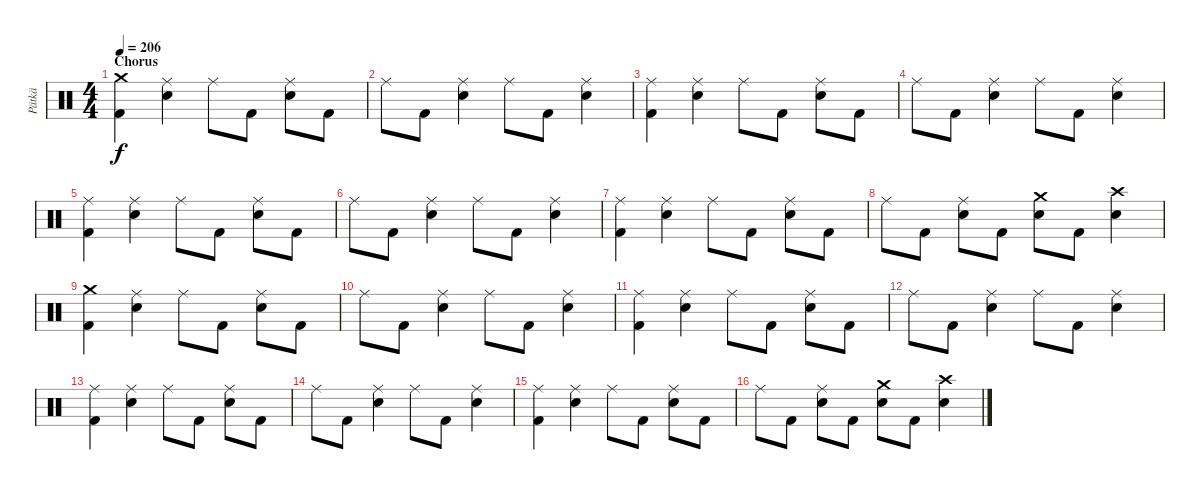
\track ("Pätkä" "Pätkä") {instrument percussion}
\staff {score}
\articulation defaults
\ts (4 4)
\section ("" "Chorus")
\tempo 206
\clef neutral
\ks c
("Crash medium (hit)" "Kick (hit) 2").4{dy f} ("Ride (middle)" "Electric Snare (hit)").4 "Ride (middle)".8 "Kick (hit) 2".8 ("Ride (middle)" "Electric Snare (hit)").8 "Kick (hit) 2".8 |
"Ride (middle)".8 "Kick (hit) 2".8 ("Ride (middle)" "Electric Snare (hit)").4 "Ride (middle)".8 "Kick (hit) 2".8 ("Ride (middle)" "Electric Snare (hit)").4 |
("Ride (middle)" "Kick (hit) 2").4 ("Ride (middle)" "Electric Snare (hit)").4 "Ride (middle)".8 "Kick (hit) 2".8 ("Ride (middle)" "Electric Snare (hit)").8 "Kick (hit) 2".8 |
"Ride (middle)".8 "Kick (hit) 2".8 ("Ride (middle)" "Electric Snare (hit)").4 "Ride (middle)".8 "Kick (hit) 2".8 ("Ride (middle)" "Electric Snare (hit)").4 |
("Ride (middle)" "Kick (hit) 2").4 ("Ride (middle)" "Electric Snare (hit)").4 "Ride (middle)".8 "Kick (hit) 2".8 ("Ride (middle)" "Electric Snare (hit)").8 "Kick (hit) 2".8 |
"Ride (middle)".8 "Kick (hit) 2".8 ("Ride (middle)" "Electric Snare (hit)").4 "Ride (middle)".8 "Kick (hit) 2".8 ("Ride (middle)" "Electric Snare (hit)").4 |
("Ride (middle)" "Kick (hit) 2").4 ("Ride (middle)" "Electric Snare (hit)").4 "Ride (middle)".8 "Kick (hit) 2".8 ("Ride (middle)" "Electric Snare (hit)").8 "Kick (hit) 2".8 |
"Ride (middle)".8 "Kick (hit) 2".8 ("Ride (middle)" "Electric Snare (hit)").8 "Kick (hit) 2".8 ("Crash medium (hit)" "Electric Snare (hit)").8 "Kick (hit) 2".8 ("Crash high (hit)" "Electric Snare (hit)").4 |
("Crash medium (hit)" "Kick (hit) 2").4 ("Ride (middle)" "Electric Snare (hit)").4 "Ride (middle)".8 "Kick (hit) 2".8 ("Ride (middle)" "Electric Snare (hit)").8 "Kick (hit) 2".8 |
"Ride (middle)".8 "Kick (hit) 2".8 ("Ride (middle)" "Electric Snare (hit)").4 "Ride (middle)".8 "Kick (hit) 2".8 ("Ride (middle)" "Electric Snare (hit)").4 |
("Ride (middle)" "Kick (hit) 2").4 ("Ride (middle)" "Electric Snare (hit)").4 "Ride (middle)".8 "Kick (hit) 2".8 ("Ride (middle)" "Electric Snare (hit)").8 "Kick (hit) 2".8 |
"Ride (middle)".8 "Kick (hit) 2".8 ("Ride (middle)" "Electric Snare (hit)").4 "Ride (middle)".8 "Kick (hit) 2".8 ("Ride (middle)" "Electric Snare (hit)").4 |
("Ride (middle)" "Kick (hit) 2").4 ("Ride (middle)" "Electric Snare (hit)").4 "Ride (middle)".8 "Kick (hit) 2".8 ("Ride (middle)" "Electric Snare (hit)").8 "Kick (hit) 2".8 |
"Ride (middle)".8 "Kick (hit) 2".8 ("Ride (middle)" "Electric Snare (hit)").4 "Ride (middle)".8 "Kick (hit) 2".8 ("Ride (middle)" "Electric Snare (hit)").4 |
("Ride (middle)" "Kick (hit) 2").4 ("Ride (middle)" "Electric Snare (hit)").4 "Ride (middle)".8 "Kick (hit) 2".8 ("Ride (middle)" "Electric Snare (hit)").8 "Kick (hit) 2".8 |
"Ride (middle)".8 "Kick (hit) 2".8 ("Ride (middle)" "Electric Snare (hit)").8 "Kick (hit) 2".8 ("Crash medium (hit)" "Electric Snare (hit)").8 "Kick (hit) 2".8 ("Crash high (hit)" "Electric Snare (hit)").4
